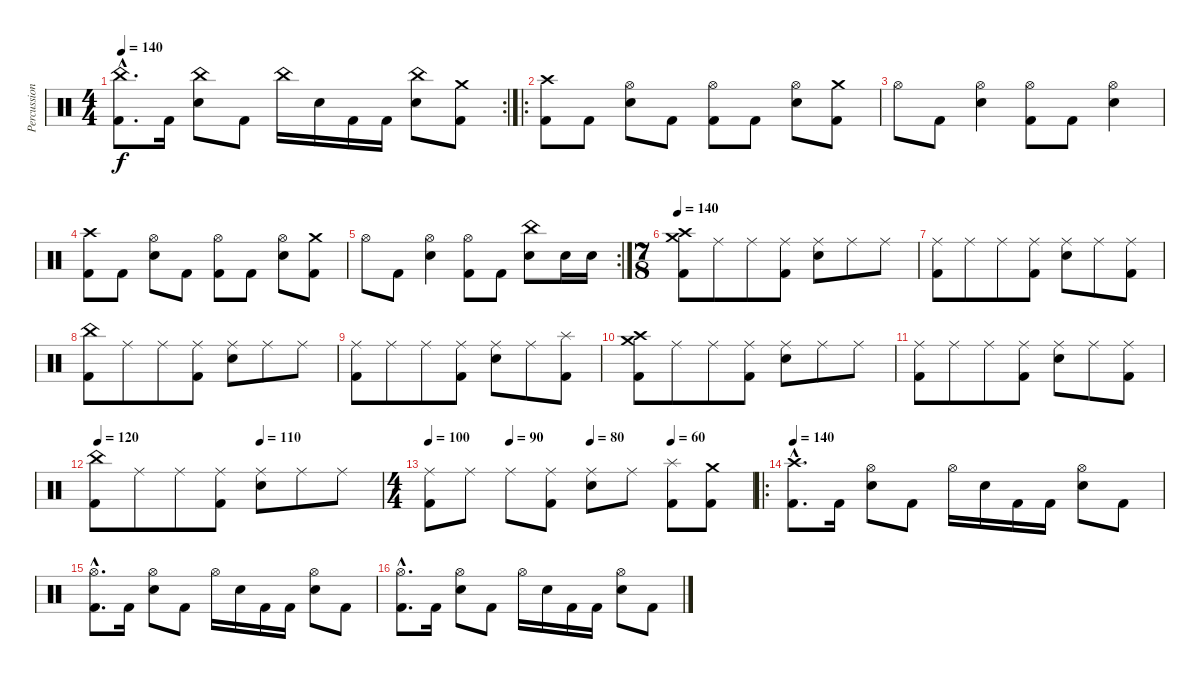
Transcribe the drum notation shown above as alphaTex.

\track ("Percussions" "Percussion") {instrument percussion}
\staff {score}
\articulation defaults
\rc 2
\ts (4 4)
\tempo 140
\clef neutral
\ks c
("China (hit)"{hac} "Kick (hit) 2"{hac}).8{d dy f} "Kick (hit) 2".16 ("China (hit)" "Electric Snare (hit)").8 "Kick (hit) 2".8 "China (hit)".16 "Electric Snare (hit)".16 "Kick (hit) 2".16 "Kick (hit) 2".16 ("China (hit)" "Electric Snare (hit)").8 ("Crash medium (hit)" "Kick (hit) 2").8 |
\ro
("Crash high (hit)" "Kick (hit) 2").8 "Kick (hit) 2".8 ("Hi-Hat (open)" "Electric Snare (hit)").8 "Kick (hit) 2".8 ("Hi-Hat (open)" "Kick (hit) 2").8 "Kick (hit) 2".8 ("Hi-Hat (open)" "Electric Snare (hit)").8 ("Crash medium (hit)" "Kick (hit) 2").8 |
"Hi-Hat (open)".8 "Kick (hit) 2".8 ("Hi-Hat (open)" "Electric Snare (hit)").4 ("Hi-Hat (open)" "Kick (hit) 2").8 "Kick (hit) 2".8 ("Hi-Hat (open)" "Electric Snare (hit)").4 |
("Crash high (hit)" "Kick (hit) 2").8 "Kick (hit) 2".8 ("Hi-Hat (open)" "Electric Snare (hit)").8 "Kick (hit) 2".8 ("Hi-Hat (open)" "Kick (hit) 2").8 "Kick (hit) 2".8 ("Hi-Hat (open)" "Electric Snare (hit)").8 ("Crash medium (hit)" "Kick (hit) 2").8 |
\rc 2 "Hi-Hat (open)".8 "Kick (hit) 2".8
("Hi-Hat (open)" "Electric Snare (hit)").4 ("Hi-Hat (open)" "Kick (hit) 2").8 "Kick (hit) 2".8 ("China (hit)" "Electric Snare (hit)").8 "Electric Snare (hit)".16 "Electric Snare (hit)".16 |
\ts (7 8)
\tempo 140
("Crash medium (hit)" "Crash high (hit)" "Kick (hit) 2").8 "Ride (middle)".8 "Ride (middle)".8 ("Ride (middle)" "Kick (hit) 2").8 ("Ride (middle)" "Electric Snare (hit)").8 "Ride (middle)".8 "Ride (middle)".8 |
("Ride (middle)" "Kick (hit) 2").8 "Ride (middle)".8 "Ride (middle)".8 ("Ride (middle)" "Kick (hit) 2").8 ("Ride (middle)" "Electric Snare (hit)").8 "Ride (middle)".8 ("Ride (middle)" "Kick (hit) 2").8 |
("China (hit)" "Kick (hit) 2").8 "Ride (middle)".8 "Ride (middle)".8 ("Ride (middle)" "Kick (hit) 2").8 ("Ride (middle)" "Electric Snare (hit)").8 "Ride (middle)".8 "Ride (middle)".8 |
("Ride (middle)" "Kick (hit) 2").8 "Ride (middle)".8 "Ride (middle)".8 ("Ride (middle)" "Kick (hit) 2").8 ("Ride (middle)" "Electric Snare (hit)").8 "Ride (middle)".8 ("Splash (hit)" "Kick (hit) 2").8 |
("Crash medium (hit)" "Crash high (hit)" "Kick (hit) 2").8 "Ride (middle)".8 "Ride (middle)".8 ("Ride (middle)" "Kick (hit) 2").8 ("Ride (middle)" "Electric Snare (hit)").8 "Ride (middle)".8 "Ride (middle)".8 |
("Ride (middle)" "Kick (hit) 2").8 "Ride (middle)".8 "Ride (middle)".8 ("Ride (middle)" "Kick (hit) 2").8 ("Ride (middle)" "Electric Snare (hit)").8 "Ride (middle)".8 ("Ride (middle)" "Kick (hit) 2").8 |
\tempo 120
\tempo (110 0.5714285714285714)
("China (hit)" "Kick (hit) 2").8 "Ride (middle)".8 "Ride (middle)".8 ("Ride (middle)" "Kick (hit) 2").8 ("Ride (middle)" "Electric Snare (hit)").8 "Ride (middle)".8 "Ride (middle)".8 |
\ts (4 4)
\tempo 100
\tempo (90 0.25)
\tempo (80 0.5)
\tempo (60 0.75)
("Ride (middle)" "Kick (hit) 2").8 "Ride (middle)".8 "Ride (middle)".8 ("Ride (middle)" "Kick (hit) 2").8 ("Ride (middle)" "Electric Snare (hit)").8 "Ride (middle)".8 ("Splash (hit)" "Kick (hit) 2").8 ("Crash medium (hit)" "Kick (hit) 2").8 |
\ro
\tempo 140
("Crash high (hit)"{hac} "Kick (hit) 2"{hac}).8{d} "Kick (hit) 2".16 ("Hi-Hat (open)" "Electric Snare (hit)").8 "Kick (hit) 2".8 "Hi-Hat (open)".16 "Electric Snare (hit)".16 "Kick (hit) 2".16 "Kick (hit) 2".16 ("Hi-Hat (open)" "Electric Snare (hit)").8 "Kick (hit) 2".8 |
("Hi-Hat (open)"{hac} "Kick (hit) 2"{hac}).8{d} "Kick (hit) 2".16 ("Hi-Hat (open)" "Electric Snare (hit)").8 "Kick (hit) 2".8 "Hi-Hat (open)".16 "Electric Snare (hit)".16 "Kick (hit) 2".16 "Kick (hit) 2".16 ("Hi-Hat (open)" "Electric Snare (hit)").8 "Kick (hit) 2".8 |
("Hi-Hat (open)"{hac} "Kick (hit) 2"{hac}).8{d} "Kick (hit) 2".16 ("Hi-Hat (open)" "Electric Snare (hit)").8 "Kick (hit) 2".8 "Hi-Hat (open)".16 "Electric Snare (hit)".16 "Kick (hit) 2".16 "Kick (hit) 2".16 ("Hi-Hat (open)" "Electric Snare (hit)").8 "Kick (hit) 2".8
